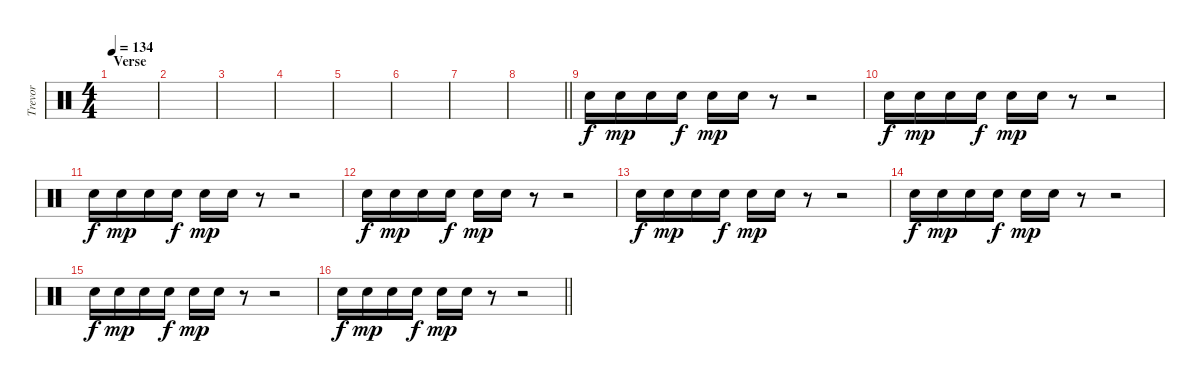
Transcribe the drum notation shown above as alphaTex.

\track ("Trevor" "Trevor") {instrument percussion}
\staff {score}
\articulation defaults
\ts (4 4)
\section ("" "Verse")
\tempo 134
\clef neutral
\ks c
|
|
|
|
|
|
|
\barLineRight lightlight
|
\section ("" "")
"Snare (hit) 2".16{dy f} "Snare (hit) 2".16{dy mp} "Snare (hit) 2".16 "Snare (hit) 2".16{dy f} "Snare (hit) 2".16{dy mp} "Snare (hit) 2".16 r.8 r.2 |
"Snare (hit) 2".16{dy f} "Snare (hit) 2".16{dy mp} "Snare (hit) 2".16 "Snare (hit) 2".16{dy f} "Snare (hit) 2".16{dy mp} "Snare (hit) 2".16 r.8 r.2 |
"Snare (hit) 2".16{dy f} "Snare (hit) 2".16{dy mp} "Snare (hit) 2".16 "Snare (hit) 2".16{dy f} "Snare (hit) 2".16{dy mp} "Snare (hit) 2".16 r.8 r.2 |
"Snare (hit) 2".16{dy f} "Snare (hit) 2".16{dy mp} "Snare (hit) 2".16 "Snare (hit) 2".16{dy f} "Snare (hit) 2".16{dy mp} "Snare (hit) 2".16 r.8 r.2 |
"Snare (hit) 2".16{dy f} "Snare (hit) 2".16{dy mp} "Snare (hit) 2".16 "Snare (hit) 2".16{dy f} "Snare (hit) 2".16{dy mp} "Snare (hit) 2".16 r.8 r.2 |
"Snare (hit) 2".16{dy f} "Snare (hit) 2".16{dy mp} "Snare (hit) 2".16 "Snare (hit) 2".16{dy f} "Snare (hit) 2".16{dy mp} "Snare (hit) 2".16 r.8 r.2 |
"Snare (hit) 2".16{dy f} "Snare (hit) 2".16{dy mp} "Snare (hit) 2".16 "Snare (hit) 2".16{dy f} "Snare (hit) 2".16{dy mp} "Snare (hit) 2".16 r.8 r.2 |
\barLineRight lightlight "Snare (hit) 2".16{dy f} "Snare (hit) 2".16{dy mp} "Snare (hit) 2".16 "Snare (hit) 2".16{dy f} "Snare (hit) 2".16{dy mp} "Snare (hit) 2".16
r.8 r.2
